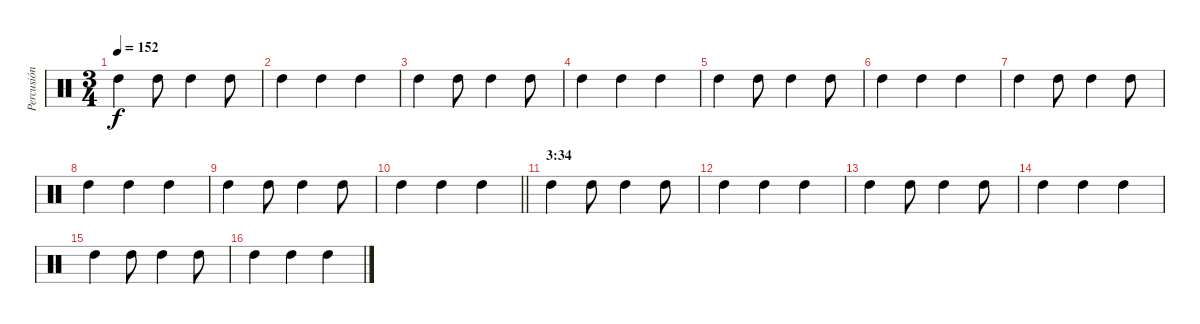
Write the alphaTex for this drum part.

\track ("Percusión" "Percusión") {instrument percussion}
\staff {score}
\articulation defaults
\ts (3 4)
\tempo 152
\clef neutral
\ks c "High Tom (hit)".4{dy f} "High Tom (hit)".8 "High Tom (hit)".4 "High Tom (hit)".8
|
"High Tom (hit)".4 "High Tom (hit)".4 "High Tom (hit)".4 |
"High Tom (hit)".4 "High Tom (hit)".8 "High Tom (hit)".4 "High Tom (hit)".8 |
"High Tom (hit)".4 "High Tom (hit)".4 "High Tom (hit)".4 |
"High Tom (hit)".4 "High Tom (hit)".8 "High Tom (hit)".4 "High Tom (hit)".8 |
"High Tom (hit)".4 "High Tom (hit)".4 "High Tom (hit)".4 |
"High Tom (hit)".4 "High Tom (hit)".8 "High Tom (hit)".4 "High Tom (hit)".8 |
"High Tom (hit)".4 "High Tom (hit)".4 "High Tom (hit)".4 |
"High Tom (hit)".4 "High Tom (hit)".8 "High Tom (hit)".4 "High Tom (hit)".8 |
\barLineRight lightlight "High Tom (hit)".4 "High Tom (hit)".4 "High Tom (hit)".4
|
\section ("" "3:34")
"High Tom (hit)".4 "High Tom (hit)".8 "High Tom (hit)".4 "High Tom (hit)".8 |
"High Tom (hit)".4 "High Tom (hit)".4 "High Tom (hit)".4 |
"High Tom (hit)".4 "High Tom (hit)".8 "High Tom (hit)".4 "High Tom (hit)".8 |
"High Tom (hit)".4 "High Tom (hit)".4 "High Tom (hit)".4 |
"High Tom (hit)".4 "High Tom (hit)".8 "High Tom (hit)".4 "High Tom (hit)".8 |
"High Tom (hit)".4 "High Tom (hit)".4 "High Tom (hit)".4
